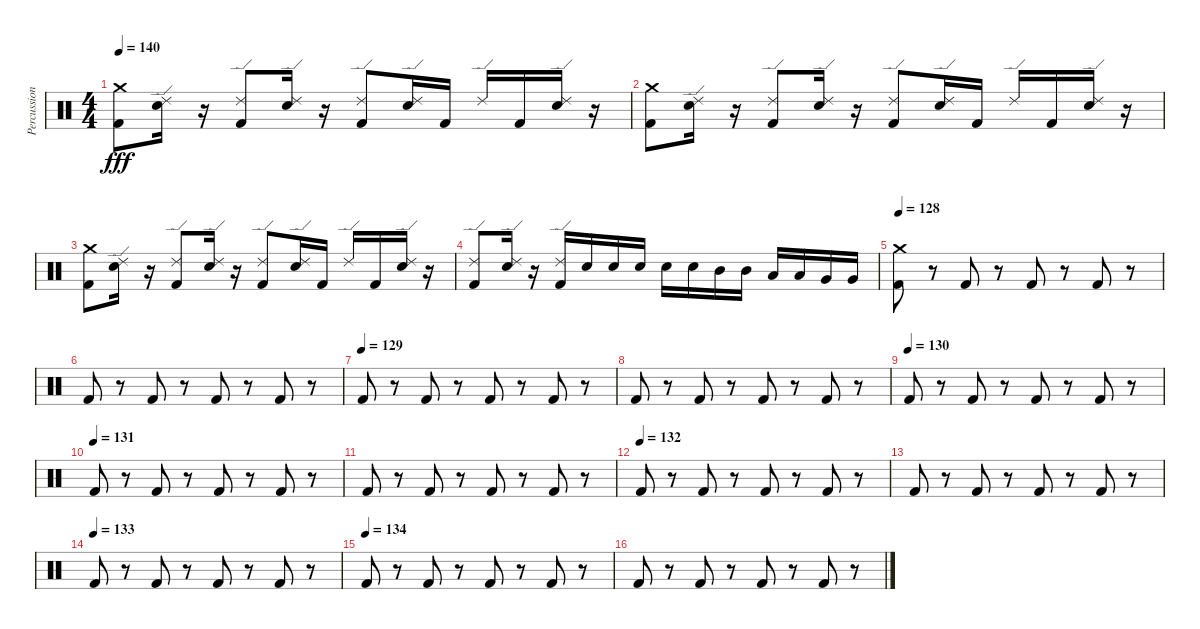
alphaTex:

\track ("Percussion" "Percussion") {instrument percussion}
\staff {score}
\articulation defaults
\ts (4 4)
\tempo 140
\clef neutral
\ks c
("Kick (hit) 2" "Crash medium (hit)").8{dy fff} ("Snare (hit) 2" "Ride (edge) 2").16 r.16 ("Kick (hit) 2" "Ride (edge) 2").8 ("Snare (hit) 2" "Ride (edge) 2").16 r.16 ("Kick (hit) 2" "Ride (edge) 2").8 ("Snare (hit) 2" "Ride (edge) 2").16 "Kick (hit) 2".16 "Ride (edge) 2".16 "Kick (hit) 2".16 ("Snare (hit) 2" "Ride (edge) 2").16 r.16 |
("Kick (hit) 2" "Crash medium (hit)").8 ("Snare (hit) 2" "Ride (edge) 2").16 r.16 ("Kick (hit) 2" "Ride (edge) 2").8 ("Snare (hit) 2" "Ride (edge) 2").16 r.16 ("Kick (hit) 2" "Ride (edge) 2").8 ("Snare (hit) 2" "Ride (edge) 2").16 "Kick (hit) 2".16 "Ride (edge) 2".16 "Kick (hit) 2".16 ("Snare (hit) 2" "Ride (edge) 2").16 r.16 |
("Kick (hit) 2" "Crash medium (hit)").8 ("Snare (hit) 2" "Ride (edge) 2").16 r.16 ("Kick (hit) 2" "Ride (edge) 2").8 ("Snare (hit) 2" "Ride (edge) 2").16 r.16 ("Kick (hit) 2" "Ride (edge) 2").8 ("Snare (hit) 2" "Ride (edge) 2").16 "Kick (hit) 2".16 "Ride (edge) 2".16 "Kick (hit) 2".16 ("Snare (hit) 2" "Ride (edge) 2").16 r.16 |
("Kick (hit) 2" "Ride (edge) 2").8 ("Snare (hit) 2" "Ride (edge) 2").16 r.16 ("Kick (hit) 2" "Ride (edge) 2").16 "Snare (hit) 2".16 "Snare (hit) 2".16 "Snare (hit) 2".16 "Snare (hit) 2".16 "Snare (hit) 2".16 "Mid Tom (hit)".16 "Mid Tom (hit)".16 "Low Tom (hit)".16 "Low Tom (hit)".16 "Very Low Tom (hit)".16 "Very Low Tom (hit)".16 |
\tempo 128
("Kick (hit) 2" "Crash medium (hit)").8 r.8 "Kick (hit) 2".8 r.8 "Kick (hit) 2".8 r.8 "Kick (hit) 2".8 r.8 |
"Kick (hit) 2".8 r.8 "Kick (hit) 2".8 r.8 "Kick (hit) 2".8 r.8 "Kick (hit) 2".8 r.8 |
\tempo (129)
"Kick (hit) 2".8 r.8 "Kick (hit) 2".8 r.8 "Kick (hit) 2".8 r.8 "Kick (hit) 2".8 r.8 |
"Kick (hit) 2".8 r.8 "Kick (hit) 2".8 r.8 "Kick (hit) 2".8 r.8 "Kick (hit) 2".8 r.8 |
\tempo (130)
"Kick (hit) 2".8 r.8 "Kick (hit) 2".8 r.8 "Kick (hit) 2".8 r.8 "Kick (hit) 2".8 r.8 |
\tempo (131)
"Kick (hit) 2".8 r.8 "Kick (hit) 2".8 r.8 "Kick (hit) 2".8 r.8 "Kick (hit) 2".8 r.8 |
"Kick (hit) 2".8 r.8 "Kick (hit) 2".8 r.8 "Kick (hit) 2".8 r.8 "Kick (hit) 2".8 r.8 |
\tempo (132)
"Kick (hit) 2".8 r.8 "Kick (hit) 2".8 r.8 "Kick (hit) 2".8 r.8 "Kick (hit) 2".8 r.8 |
"Kick (hit) 2".8 r.8 "Kick (hit) 2".8 r.8 "Kick (hit) 2".8 r.8 "Kick (hit) 2".8 r.8 |
\tempo (133)
"Kick (hit) 2".8 r.8 "Kick (hit) 2".8 r.8 "Kick (hit) 2".8 r.8 "Kick (hit) 2".8 r.8 |
\tempo (134)
"Kick (hit) 2".8 r.8 "Kick (hit) 2".8 r.8 "Kick (hit) 2".8 r.8 "Kick (hit) 2".8 r.8 |
"Kick (hit) 2".8 r.8 "Kick (hit) 2".8 r.8 "Kick (hit) 2".8 r.8 "Kick (hit) 2".8 r.8
